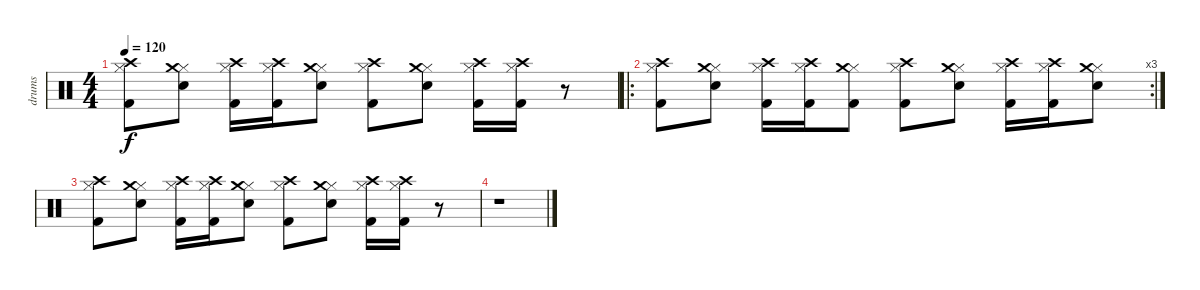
\track ("drums" "drums") {instrument percussion}
\staff {score}
\articulation defaults
\ts (4 4)
\tempo 120
\clef neutral
\ks c
("Hi-Hat (closed)" "Crash high (hit)" "Kick (hit) 2").8{dy f} ("Hi-Hat (closed)" "Crash medium (hit)" "Snare (hit) 2").8 ("Hi-Hat (closed)" "Crash high (hit)" "Kick (hit) 2").16 ("Hi-Hat (closed)" "Crash high (hit)" "Kick (hit) 2").16 ("Hi-Hat (closed)" "Crash medium (hit)" "Snare (hit) 2").8 ("Hi-Hat (closed)" "Crash high (hit)" "Kick (hit) 2").8 ("Hi-Hat (closed)" "Crash medium (hit)" "Snare (hit) 2").8 ("Hi-Hat (closed)" "Crash high (hit)" "Kick (hit) 2").16 ("Hi-Hat (closed)" "Crash high (hit)" "Kick (hit) 2").16 r.8 |
\ro
\rc 3
("Hi-Hat (closed)" "Crash high (hit)" "Kick (hit) 2").8 ("Hi-Hat (closed)" "Crash medium (hit)" "Snare (hit) 2").8 ("Hi-Hat (closed)" "Crash high (hit)" "Kick (hit) 2").16 ("Hi-Hat (closed)" "Crash high (hit)" "Kick (hit) 2").16 ("Hi-Hat (closed)" "Crash medium (hit)" "Kick (hit) 2").8 ("Hi-Hat (closed)" "Crash high (hit)" "Kick (hit) 2").8 ("Hi-Hat (closed)" "Crash medium (hit)" "Snare (hit) 2").8 ("Hi-Hat (closed)" "Crash high (hit)" "Kick (hit) 2").16 ("Hi-Hat (closed)" "Crash high (hit)" "Kick (hit) 2").16 ("Hi-Hat (closed)" "Crash medium (hit)" "Snare (hit) 2").8 |
("Hi-Hat (closed)" "Crash high (hit)" "Kick (hit) 2").8 ("Hi-Hat (closed)" "Crash medium (hit)" "Snare (hit) 2").8 ("Hi-Hat (closed)" "Crash high (hit)" "Kick (hit) 2").16 ("Hi-Hat (closed)" "Crash high (hit)" "Kick (hit) 2").16 ("Hi-Hat (closed)" "Crash medium (hit)" "Snare (hit) 2").8 ("Hi-Hat (closed)" "Crash high (hit)" "Kick (hit) 2").8 ("Hi-Hat (closed)" "Crash medium (hit)" "Snare (hit) 2").8 ("Hi-Hat (closed)" "Crash high (hit)" "Kick (hit) 2").16 ("Hi-Hat (closed)" "Crash high (hit)" "Kick (hit) 2").16 r.8 |
r.1
